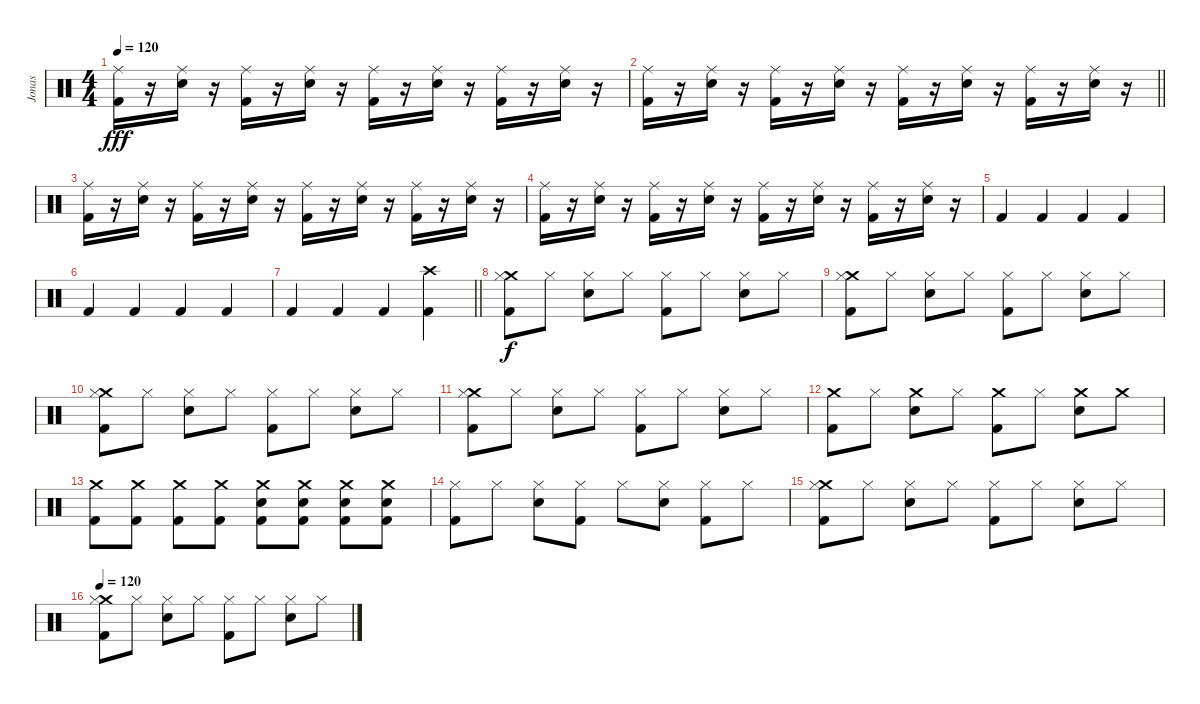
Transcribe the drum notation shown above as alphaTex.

\track ("Jonas" "Jonas") {instrument percussion}
\staff {score}
\articulation defaults
\ts (4 4)
\tempo 120
\clef neutral
\ks c
("Ride (middle)" "Kick (hit) 2").16{dy fff} r.16 ("Ride (middle)" "Snare (hit) 2").16 r.16 ("Ride (middle)" "Kick (hit) 2").16 r.16 ("Ride (middle)" "Snare (hit) 2").16 r.16 ("Ride (middle)" "Kick (hit) 2").16 r.16 ("Ride (middle)" "Snare (hit) 2").16 r.16 ("Ride (middle)" "Kick (hit) 2").16 r.16 ("Ride (middle)" "Snare (hit) 2").16 r.16 |
\barLineRight lightlight
("Ride (middle)" "Kick (hit) 2").16 r.16 ("Ride (middle)" "Snare (hit) 2").16 r.16 ("Ride (middle)" "Kick (hit) 2").16 r.16 ("Ride (middle)" "Snare (hit) 2").16 r.16 ("Ride (middle)" "Kick (hit) 2").16 r.16 ("Ride (middle)" "Snare (hit) 2").16 r.16 ("Ride (middle)" "Kick (hit) 2").16 r.16 ("Ride (middle)" "Snare (hit) 2").16 r.16 |
("Ride (middle)" "Kick (hit) 2").16 r.16 ("Ride (middle)" "Snare (hit) 2").16 r.16 ("Ride (middle)" "Kick (hit) 2").16 r.16 ("Ride (middle)" "Snare (hit) 2").16 r.16 ("Ride (middle)" "Kick (hit) 2").16 r.16 ("Ride (middle)" "Snare (hit) 2").16 r.16 ("Ride (middle)" "Kick (hit) 2").16 r.16 ("Ride (middle)" "Snare (hit) 2").16 r.16 |
("Ride (middle)" "Kick (hit) 2").16 r.16 ("Ride (middle)" "Snare (hit) 2").16 r.16 ("Ride (middle)" "Kick (hit) 2").16 r.16 ("Ride (middle)" "Snare (hit) 2").16 r.16 ("Ride (middle)" "Kick (hit) 2").16 r.16 ("Ride (middle)" "Snare (hit) 2").16 r.16 ("Ride (middle)" "Kick (hit) 2").16 r.16 ("Ride (middle)" "Snare (hit) 2").16 r.16 |
"Kick (hit) 2".4 "Kick (hit) 2".4 "Kick (hit) 2".4 "Kick (hit) 2".4 |
"Kick (hit) 2".4 "Kick (hit) 2".4 "Kick (hit) 2".4 "Kick (hit) 2".4 |
\barLineRight lightlight "Kick (hit) 2".4 "Kick (hit) 2".4 "Kick (hit) 2".4
("Crash high (hit)" "Kick (hit) 2").4 |
("Crash medium (hit)" "Hi-Hat (closed)" "Kick (hit) 2").8{dy f} "Hi-Hat (closed)".8 ("Hi-Hat (closed)" "Snare (hit) 2").8 "Hi-Hat (closed)".8 ("Hi-Hat (closed)" "Kick (hit) 2").8 "Hi-Hat (closed)".8 ("Hi-Hat (closed)" "Snare (hit) 2").8 "Hi-Hat (closed)".8 |
("Crash medium (hit)" "Hi-Hat (closed)" "Kick (hit) 2").8 "Hi-Hat (closed)".8 ("Hi-Hat (closed)" "Snare (hit) 2").8 "Hi-Hat (closed)".8 ("Hi-Hat (closed)" "Kick (hit) 2").8 "Hi-Hat (closed)".8 ("Hi-Hat (closed)" "Snare (hit) 2").8 "Hi-Hat (closed)".8 |
("Crash medium (hit)" "Hi-Hat (closed)" "Kick (hit) 2").8 "Hi-Hat (closed)".8 ("Hi-Hat (closed)" "Snare (hit) 2").8 "Hi-Hat (closed)".8 ("Hi-Hat (closed)" "Kick (hit) 2").8 "Hi-Hat (closed)".8 ("Hi-Hat (closed)" "Snare (hit) 2").8 "Hi-Hat (closed)".8 |
("Crash medium (hit)" "Hi-Hat (closed)" "Kick (hit) 2").8 "Hi-Hat (closed)".8 ("Hi-Hat (closed)" "Snare (hit) 2").8 "Hi-Hat (closed)".8 ("Hi-Hat (closed)" "Kick (hit) 2").8 "Hi-Hat (closed)".8 ("Hi-Hat (closed)" "Snare (hit) 2").8 "Hi-Hat (closed)".8 |
("Crash medium (hit)" "Kick (hit) 2").8 "Hi-Hat (closed)".8 ("Crash medium (hit)" "Snare (hit) 2").8 "Hi-Hat (closed)".8 ("Crash medium (hit)" "Kick (hit) 2").8 "Hi-Hat (closed)".8 ("Crash medium (hit)" "Snare (hit) 2").8 "Crash medium (hit)".8 |
("Crash medium (hit)" "Kick (hit) 2").8 ("Crash medium (hit)" "Kick (hit) 2").8 ("Crash medium (hit)" "Kick (hit) 2").8 ("Crash medium (hit)" "Kick (hit) 2").8 ("Crash medium (hit)" "Snare (hit) 2" "Kick (hit) 2").8 ("Crash medium (hit)" "Snare (hit) 2" "Kick (hit) 2").8 ("Crash medium (hit)" "Snare (hit) 2" "Kick (hit) 2").8 ("Crash medium (hit)" "Snare (hit) 2" "Kick (hit) 2").8 |
("Hi-Hat (closed)" "Kick (hit) 2").8 "Hi-Hat (closed)".8 ("Hi-Hat (closed)" "Snare (hit) 2").8 ("Hi-Hat (closed)" "Kick (hit) 2").8 "Hi-Hat (closed)".8 ("Hi-Hat (closed)" "Snare (hit) 2").8 ("Hi-Hat (closed)" "Kick (hit) 2").8 "Hi-Hat (closed)".8 |
("Crash medium (hit)" "Hi-Hat (closed)" "Kick (hit) 2").8 "Hi-Hat (closed)".8 ("Hi-Hat (closed)" "Snare (hit) 2").8 "Hi-Hat (closed)".8 ("Hi-Hat (closed)" "Kick (hit) 2").8 "Hi-Hat (closed)".8 ("Hi-Hat (closed)" "Snare (hit) 2").8 "Hi-Hat (closed)".8 |
\tempo 120
("Crash medium (hit)" "Hi-Hat (closed)" "Kick (hit) 2").8 "Hi-Hat (closed)".8 ("Hi-Hat (closed)" "Snare (hit) 2").8 "Hi-Hat (closed)".8 ("Hi-Hat (closed)" "Kick (hit) 2").8 "Hi-Hat (closed)".8 ("Hi-Hat (closed)" "Snare (hit) 2").8 "Hi-Hat (closed)".8
